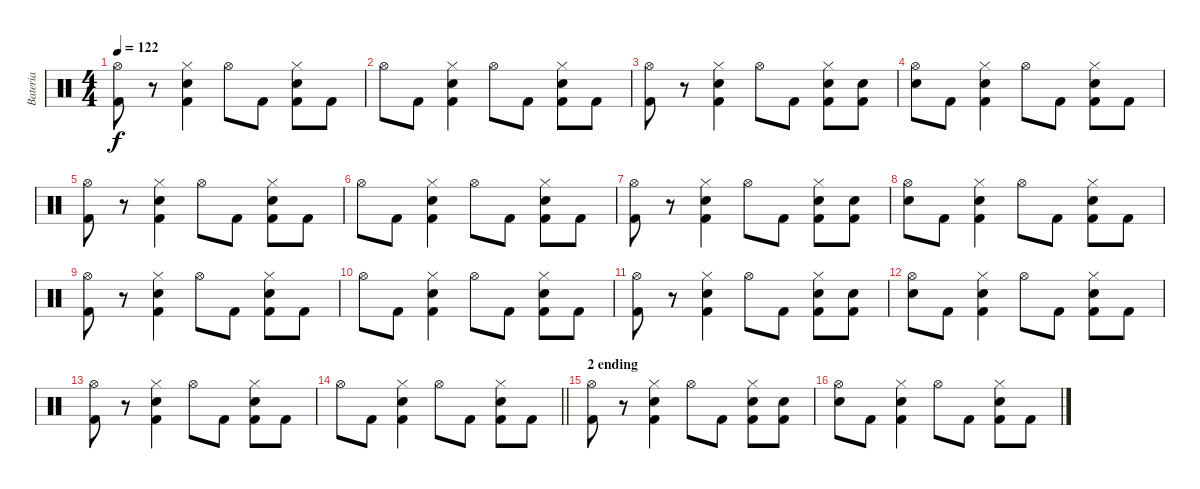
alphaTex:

\track ("Bateria" "Bateria") {instrument percussion}
\staff {score}
\articulation defaults
\ts (4 4)
\tempo 122
\clef neutral
\ks c
("Kick (hit) 2" "Hi-Hat (open)").8{dy f} r.8 ("Kick (hit) 2" "Snare (hit) 2" "Hi-Hat (closed)").4 "Hi-Hat (open)".8 "Kick (hit) 2".8 ("Kick (hit) 2" "Snare (hit) 2" "Hi-Hat (closed)").8 "Kick (hit) 2".8 |
"Hi-Hat (open)".8 "Kick (hit) 2".8 ("Kick (hit) 2" "Snare (hit) 2" "Hi-Hat (closed)").4 "Hi-Hat (open)".8 "Kick (hit) 2".8 ("Kick (hit) 2" "Snare (hit) 2" "Hi-Hat (closed)").8 "Kick (hit) 2".8 |
("Kick (hit) 2" "Hi-Hat (open)").8 r.8 ("Kick (hit) 2" "Snare (hit) 2" "Hi-Hat (closed)").4 "Hi-Hat (open)".8 "Kick (hit) 2".8 ("Kick (hit) 2" "Snare (hit) 2" "Hi-Hat (closed)").8 ("Kick (hit) 2" "Snare (hit)").8 |
("Hi-Hat (open)" "Snare (hit)").8 "Kick (hit) 2".8 ("Kick (hit) 2" "Snare (hit) 2" "Hi-Hat (closed)").4 "Hi-Hat (open)".8 "Kick (hit) 2".8 ("Kick (hit) 2" "Snare (hit) 2" "Hi-Hat (closed)").8 "Kick (hit) 2".8 |
("Kick (hit) 2" "Hi-Hat (open)").8 r.8 ("Kick (hit) 2" "Snare (hit) 2" "Hi-Hat (closed)").4 "Hi-Hat (open)".8 "Kick (hit) 2".8 ("Kick (hit) 2" "Snare (hit) 2" "Hi-Hat (closed)").8 "Kick (hit) 2".8 |
"Hi-Hat (open)".8 "Kick (hit) 2".8 ("Kick (hit) 2" "Snare (hit) 2" "Hi-Hat (closed)").4 "Hi-Hat (open)".8 "Kick (hit) 2".8 ("Kick (hit) 2" "Snare (hit) 2" "Hi-Hat (closed)").8 "Kick (hit) 2".8 |
("Kick (hit) 2" "Hi-Hat (open)").8 r.8 ("Kick (hit) 2" "Snare (hit) 2" "Hi-Hat (closed)").4 "Hi-Hat (open)".8 "Kick (hit) 2".8 ("Kick (hit) 2" "Snare (hit) 2" "Hi-Hat (closed)").8 ("Kick (hit) 2" "Snare (hit)").8 |
("Hi-Hat (open)" "Snare (hit)").8 "Kick (hit) 2".8 ("Kick (hit) 2" "Snare (hit) 2" "Hi-Hat (closed)").4 "Hi-Hat (open)".8 "Kick (hit) 2".8 ("Kick (hit) 2" "Snare (hit) 2" "Hi-Hat (closed)").8 "Kick (hit) 2".8 |
("Kick (hit) 2" "Hi-Hat (open)").8 r.8 ("Kick (hit) 2" "Snare (hit) 2" "Hi-Hat (closed)").4 "Hi-Hat (open)".8 "Kick (hit) 2".8 ("Kick (hit) 2" "Snare (hit) 2" "Hi-Hat (closed)").8 "Kick (hit) 2".8 |
"Hi-Hat (open)".8 "Kick (hit) 2".8 ("Kick (hit) 2" "Snare (hit) 2" "Hi-Hat (closed)").4 "Hi-Hat (open)".8 "Kick (hit) 2".8 ("Kick (hit) 2" "Snare (hit) 2" "Hi-Hat (closed)").8 "Kick (hit) 2".8 |
("Kick (hit) 2" "Hi-Hat (open)").8 r.8 ("Kick (hit) 2" "Snare (hit) 2" "Hi-Hat (closed)").4 "Hi-Hat (open)".8 "Kick (hit) 2".8 ("Kick (hit) 2" "Snare (hit) 2" "Hi-Hat (closed)").8 ("Kick (hit) 2" "Snare (hit)").8 |
("Hi-Hat (open)" "Snare (hit)").8 "Kick (hit) 2".8 ("Kick (hit) 2" "Snare (hit) 2" "Hi-Hat (closed)").4 "Hi-Hat (open)".8 "Kick (hit) 2".8 ("Kick (hit) 2" "Snare (hit) 2" "Hi-Hat (closed)").8 "Kick (hit) 2".8 |
("Kick (hit) 2" "Hi-Hat (open)").8 r.8 ("Kick (hit) 2" "Snare (hit) 2" "Hi-Hat (closed)").4 "Hi-Hat (open)".8 "Kick (hit) 2".8 ("Kick (hit) 2" "Snare (hit) 2" "Hi-Hat (closed)").8 "Kick (hit) 2".8 |
\barLineRight lightlight "Hi-Hat (open)".8 "Kick (hit) 2".8
("Kick (hit) 2" "Snare (hit) 2" "Hi-Hat (closed)").4 "Hi-Hat (open)".8 "Kick (hit) 2".8 ("Kick (hit) 2" "Snare (hit) 2" "Hi-Hat (closed)").8 "Kick (hit) 2".8 |
\section ("" "2 ending")
("Kick (hit) 2" "Hi-Hat (open)").8 r.8 ("Kick (hit) 2" "Snare (hit) 2" "Hi-Hat (closed)").4 "Hi-Hat (open)".8 "Kick (hit) 2".8 ("Kick (hit) 2" "Snare (hit) 2" "Hi-Hat (closed)").8 ("Kick (hit) 2" "Snare (hit)").8 |
("Hi-Hat (open)" "Snare (hit)").8 "Kick (hit) 2".8 ("Kick (hit) 2" "Snare (hit) 2" "Hi-Hat (closed)").4 "Hi-Hat (open)".8 "Kick (hit) 2".8 ("Kick (hit) 2" "Snare (hit) 2" "Hi-Hat (closed)").8 "Kick (hit) 2".8
